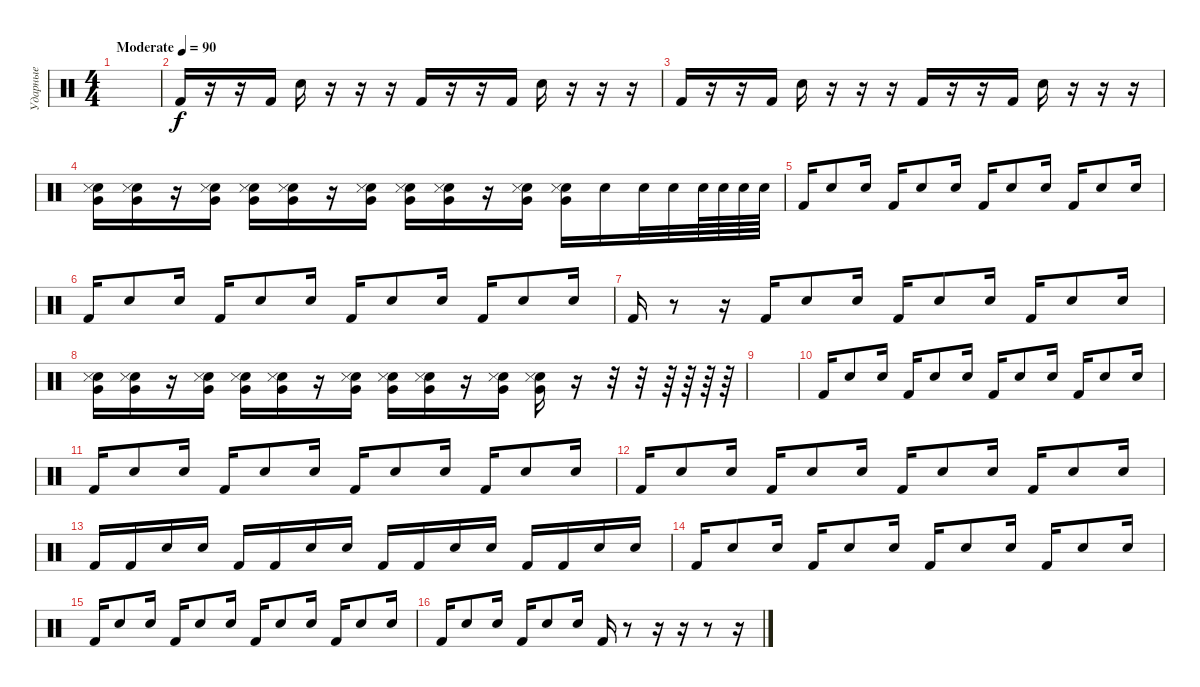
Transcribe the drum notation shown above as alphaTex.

\track ("Ударные" "Ударные") {instrument percussion}
\staff {score}
\articulation defaults
\ts (4 4)
\tempo (90 "Moderate")
\clef neutral
\ks c
|
"Kick (hit) 2".16 r.16 r.16 "Kick (hit) 2".16 "Electric Snare (hit)".16 r.16 r.16 r.16 "Kick (hit) 2".16 r.16 r.16 "Kick (hit) 2".16 "Electric Snare (hit)".16 r.16 r.16 r.16 |
"Kick (hit) 2".16 r.16 r.16 "Kick (hit) 2".16 "Electric Snare (hit)".16 r.16 r.16 r.16 "Kick (hit) 2".16 r.16 r.16 "Kick (hit) 2".16 "Electric Snare (hit)".16 r.16 r.16 r.16 |
("Very Low Tom (hit)" "Electric Snare (hit)" "Snare (side stick) 3").16 ("Very Low Tom (hit)" "Electric Snare (hit)" "Snare (side stick) 3").16 r.16 ("Very Low Tom (hit)" "Electric Snare (hit)" "Snare (side stick) 3").16 ("Very Low Tom (hit)" "Electric Snare (hit)" "Snare (side stick) 3").16 ("Very Low Tom (hit)" "Electric Snare (hit)" "Snare (side stick) 3").16 r.16 ("Very Low Tom (hit)" "Electric Snare (hit)" "Snare (side stick) 3").16 ("Very Low Tom (hit)" "Electric Snare (hit)" "Snare (side stick) 3").16 ("Very Low Tom (hit)" "Electric Snare (hit)" "Snare (side stick) 3").16 r.16 ("Very Low Tom (hit)" "Electric Snare (hit)" "Snare (side stick) 3").16 ("Very Low Tom (hit)" "Electric Snare (hit)" "Snare (side stick) 3").16 "Electric Snare (hit)".16 "Electric Snare (hit)".32 "Electric Snare (hit)".32 "Electric Snare (hit)".64 "Electric Snare (hit)".64 "Electric Snare (hit)".64 "Electric Snare (hit)".64 |
"Kick (hit) 2".16 "Electric Snare (hit)".8 "Electric Snare (hit)".16 "Kick (hit) 2".16 "Electric Snare (hit)".8 "Electric Snare (hit)".16 "Kick (hit) 2".16 "Electric Snare (hit)".8 "Electric Snare (hit)".16 "Kick (hit) 2".16 "Electric Snare (hit)".8 "Electric Snare (hit)".16 |
"Kick (hit) 2".16 "Electric Snare (hit)".8 "Electric Snare (hit)".16 "Kick (hit) 2".16 "Electric Snare (hit)".8 "Electric Snare (hit)".16 "Kick (hit) 2".16 "Electric Snare (hit)".8 "Electric Snare (hit)".16 "Kick (hit) 2".16 "Electric Snare (hit)".8 "Electric Snare (hit)".16 |
"Kick (hit) 2".16 r.8 r.16 "Kick (hit) 2".16 "Electric Snare (hit)".8 "Electric Snare (hit)".16 "Kick (hit) 2".16 "Electric Snare (hit)".8 "Electric Snare (hit)".16 "Kick (hit) 2".16 "Electric Snare (hit)".8 "Electric Snare (hit)".16 |
("Very Low Tom (hit)" "Electric Snare (hit)" "Snare (side stick) 3").16 ("Very Low Tom (hit)" "Electric Snare (hit)" "Snare (side stick) 3").16 r.16 ("Very Low Tom (hit)" "Electric Snare (hit)" "Snare (side stick) 3").16 ("Very Low Tom (hit)" "Electric Snare (hit)" "Snare (side stick) 3").16 ("Very Low Tom (hit)" "Electric Snare (hit)" "Snare (side stick) 3").16 r.16 ("Very Low Tom (hit)" "Electric Snare (hit)" "Snare (side stick) 3").16 ("Very Low Tom (hit)" "Electric Snare (hit)" "Snare (side stick) 3").16 ("Very Low Tom (hit)" "Electric Snare (hit)" "Snare (side stick) 3").16 r.16 ("Very Low Tom (hit)" "Electric Snare (hit)" "Snare (side stick) 3").16 ("Very Low Tom (hit)" "Electric Snare (hit)" "Snare (side stick) 3").16 r.16 r.32 r.32 r.64 r.64 r.64 r.64 |
|
"Kick (hit) 2".16 "Electric Snare (hit)".8 "Electric Snare (hit)".16 "Kick (hit) 2".16 "Electric Snare (hit)".8 "Electric Snare (hit)".16 "Kick (hit) 2".16 "Electric Snare (hit)".8 "Electric Snare (hit)".16 "Kick (hit) 2".16 "Electric Snare (hit)".8 "Electric Snare (hit)".16 |
"Kick (hit) 2".16 "Electric Snare (hit)".8 "Electric Snare (hit)".16 "Kick (hit) 2".16 "Electric Snare (hit)".8 "Electric Snare (hit)".16 "Kick (hit) 2".16 "Electric Snare (hit)".8 "Electric Snare (hit)".16 "Kick (hit) 2".16 "Electric Snare (hit)".8 "Electric Snare (hit)".16 |
"Kick (hit) 2".16 "Electric Snare (hit)".8 "Electric Snare (hit)".16 "Kick (hit) 2".16 "Electric Snare (hit)".8 "Electric Snare (hit)".16 "Kick (hit) 2".16 "Electric Snare (hit)".8 "Electric Snare (hit)".16 "Kick (hit) 2".16 "Electric Snare (hit)".8 "Electric Snare (hit)".16 |
"Kick (hit) 2".16 "Kick (hit) 2".16 "Electric Snare (hit)".16 "Electric Snare (hit)".16 "Kick (hit) 2".16 "Kick (hit) 2".16 "Electric Snare (hit)".16 "Electric Snare (hit)".16 "Kick (hit) 2".16 "Kick (hit) 2".16 "Electric Snare (hit)".16 "Electric Snare (hit)".16 "Kick (hit) 2".16 "Kick (hit) 2".16 "Electric Snare (hit)".16 "Electric Snare (hit)".16 |
"Kick (hit) 2".16 "Electric Snare (hit)".8 "Electric Snare (hit)".16 "Kick (hit) 2".16 "Electric Snare (hit)".8 "Electric Snare (hit)".16 "Kick (hit) 2".16 "Electric Snare (hit)".8 "Electric Snare (hit)".16 "Kick (hit) 2".16 "Electric Snare (hit)".8 "Electric Snare (hit)".16 |
"Kick (hit) 2".16 "Electric Snare (hit)".8 "Electric Snare (hit)".16 "Kick (hit) 2".16 "Electric Snare (hit)".8 "Electric Snare (hit)".16 "Kick (hit) 2".16 "Electric Snare (hit)".8 "Electric Snare (hit)".16 "Kick (hit) 2".16 "Electric Snare (hit)".8 "Electric Snare (hit)".16 |
"Kick (hit) 2".16 "Electric Snare (hit)".8 "Electric Snare (hit)".16 "Kick (hit) 2".16 "Electric Snare (hit)".8 "Electric Snare (hit)".16 "Kick (hit) 2".16 r.8 r.16 r.16 r.8 r.16
